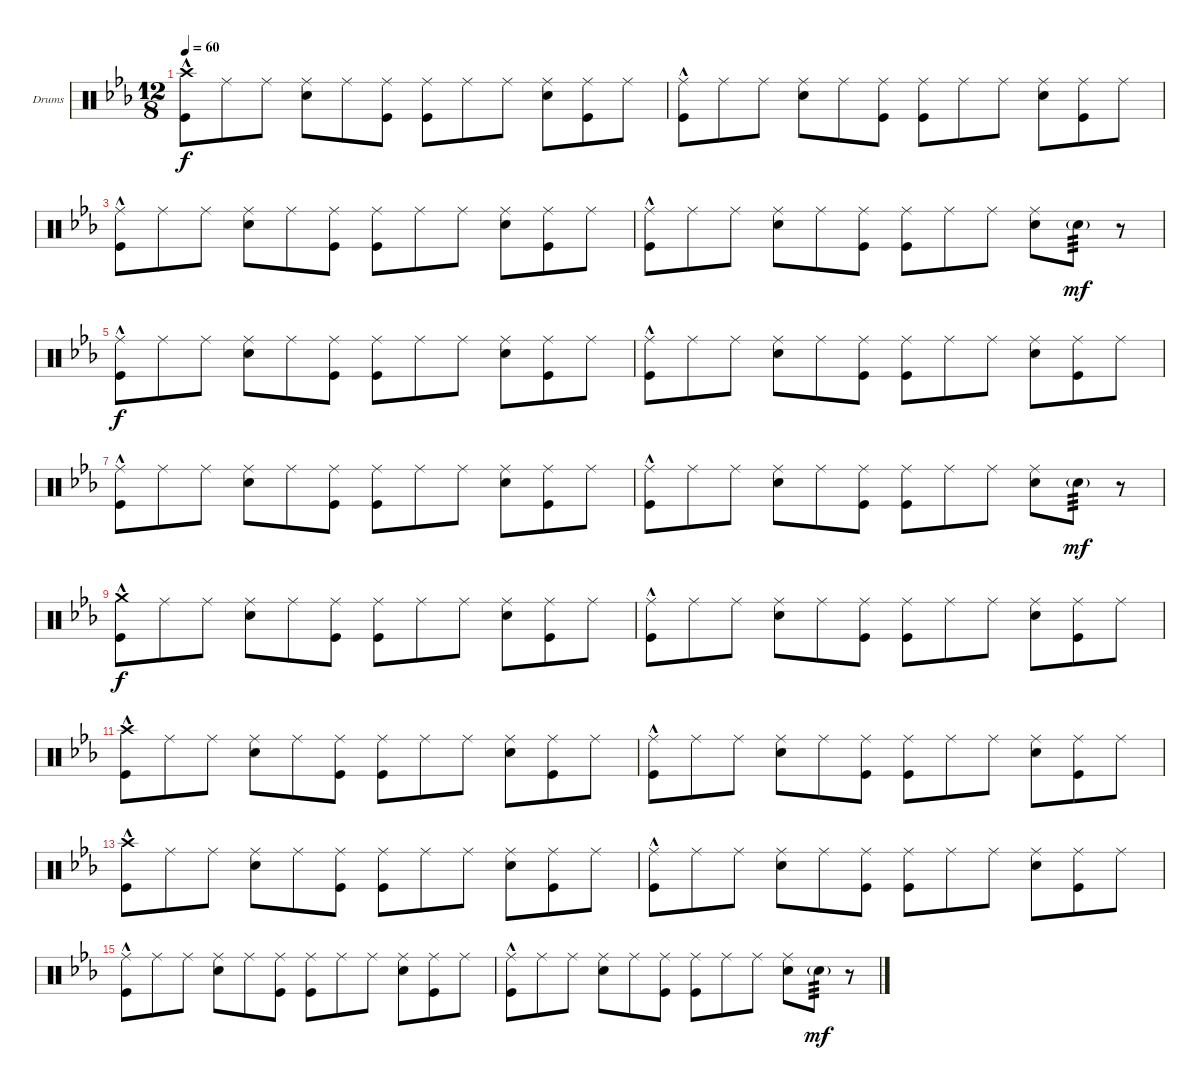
\bracketExtendMode nobrackets
\firstSystemTrackNameOrientation horizontal
\otherSystemsTrackNameOrientation horizontal
\defaultBarNumberDisplay FirstOfSystem
\track ("Drumkit" "Drums") {instrument percussion}
\staff {score}
\articulation defaults
\ts (12 8)
\tempo 60
\clef neutral
\scale
0.333333
\ks cminor
("Crash high (hit)" "Kick (hit)"{hac}).8{dy f} "Ride (middle)".8 "Ride (middle)".8 ("Ride (middle)" "Snare (hit) 2").8 "Ride (middle)".8 ("Ride (middle)" "Kick (hit)").8 ("Ride (middle)" "Kick (hit)").8 "Ride (middle)".8 "Ride (middle)".8 ("Ride (middle)" "Snare (hit) 2").8 ("Ride (middle)" "Kick (hit)").8 "Ride (middle)".8 |
\scale
0.333333 ("Ride (middle)" "Kick (hit)"{hac}).8 "Ride (middle)".8 "Ride (middle)".8 ("Ride (middle)" "Snare (hit) 2").8 "Ride (middle)".8 ("Ride (middle)" "Kick (hit)").8 ("Ride (middle)" "Kick (hit)").8 "Ride (middle)".8 "Ride (middle)".8 ("Ride (middle)" "Snare (hit) 2").8 ("Ride (middle)" "Kick (hit)").8 "Ride (middle)".8 |
\scale
0.333333 ("Ride (middle)" "Kick (hit)"{hac}).8 "Ride (middle)".8 "Ride (middle)".8 ("Ride (middle)" "Snare (hit) 2").8 "Ride (middle)".8 ("Ride (middle)" "Kick (hit)").8 ("Ride (middle)" "Kick (hit)").8 "Ride (middle)".8 "Ride (middle)".8 ("Ride (middle)" "Snare (hit) 2").8 ("Ride (middle)" "Kick (hit)").8 "Ride (middle)".8 |
\scale
0.333333 ("Ride (middle)" "Kick (hit)"{hac}).8 "Ride (middle)".8 "Ride (middle)".8 ("Ride (middle)" "Snare (hit) 2").8 "Ride (middle)".8 ("Ride (middle)" "Kick (hit)").8 ("Ride (middle)" "Kick (hit)").8 "Ride (middle)".8 "Ride (middle)".8 ("Ride (middle)" "Snare (hit) 2").8 "Snare (hit) 2"{g}.8{tp 3 dy mf} r.8 |
\scale
0.333333 ("Ride (middle)" "Kick (hit)"{hac}).8{dy f} "Ride (middle)".8 "Ride (middle)".8 ("Ride (middle)" "Snare (hit) 2").8 "Ride (middle)".8 ("Ride (middle)" "Kick (hit)").8 ("Ride (middle)" "Kick (hit)").8 "Ride (middle)".8 "Ride (middle)".8 ("Ride (middle)" "Snare (hit) 2").8 ("Ride (middle)" "Kick (hit)").8 "Ride (middle)".8 |
\scale
0.333333 ("Ride (middle)" "Kick (hit)"{hac}).8 "Ride (middle)".8 "Ride (middle)".8 ("Ride (middle)" "Snare (hit) 2").8 "Ride (middle)".8 ("Ride (middle)" "Kick (hit)").8 ("Ride (middle)" "Kick (hit)").8 "Ride (middle)".8 "Ride (middle)".8 ("Ride (middle)" "Snare (hit) 2").8 ("Ride (middle)" "Kick (hit)").8 "Ride (middle)".8 |
\scale
0.333333 ("Ride (middle)" "Kick (hit)"{hac}).8 "Ride (middle)".8 "Ride (middle)".8 ("Ride (middle)" "Snare (hit) 2").8 "Ride (middle)".8 ("Ride (middle)" "Kick (hit)").8 ("Ride (middle)" "Kick (hit)").8 "Ride (middle)".8 "Ride (middle)".8 ("Ride (middle)" "Snare (hit) 2").8 ("Ride (middle)" "Kick (hit)").8 "Ride (middle)".8 |
\scale
0.333333 ("Ride (middle)" "Kick (hit)"{hac}).8 "Ride (middle)".8 "Ride (middle)".8 ("Ride (middle)" "Snare (hit) 2").8 "Ride (middle)".8 ("Ride (middle)" "Kick (hit)").8 ("Ride (middle)" "Kick (hit)").8 "Ride (middle)".8 "Ride (middle)".8 ("Ride (middle)" "Snare (hit) 2").8 "Snare (hit) 2"{g}.8{tp 3 dy mf} r.8 |
\scale
0.333333 ("Crash medium (hit)" "Kick (hit)"{hac}).8{dy f} "Ride (middle)".8 "Ride (middle)".8 ("Ride (middle)" "Snare (hit) 2").8 "Ride (middle)".8 ("Ride (middle)" "Kick (hit)").8 ("Ride (middle)" "Kick (hit)").8 "Ride (middle)".8 "Ride (middle)".8 ("Ride (middle)" "Snare (hit) 2").8 ("Ride (middle)" "Kick (hit)").8 "Ride (middle)".8 |
\scale
0.333333 ("Ride (middle)" "Kick (hit)"{hac}).8 "Ride (middle)".8 "Ride (middle)".8 ("Ride (middle)" "Snare (hit) 2").8 "Ride (middle)".8 ("Ride (middle)" "Kick (hit)").8 ("Ride (middle)" "Kick (hit)").8 "Ride (middle)".8 "Ride (middle)".8 ("Ride (middle)" "Snare (hit) 2").8 ("Ride (middle)" "Kick (hit)").8 "Ride (middle)".8 |
\scale
0.333333 ("Crash high (hit)" "Kick (hit)"{hac}).8 "Ride (middle)".8 "Ride (middle)".8 ("Ride (middle)" "Snare (hit) 2").8 "Ride (middle)".8 ("Ride (middle)" "Kick (hit)").8 ("Ride (middle)" "Kick (hit)").8 "Ride (middle)".8 "Ride (middle)".8 ("Ride (middle)" "Snare (hit) 2").8 ("Ride (middle)" "Kick (hit)").8 "Ride (middle)".8 |
\scale
0.333333 ("Ride (middle)" "Kick (hit)"{hac}).8 "Ride (middle)".8 "Ride (middle)".8 ("Ride (middle)" "Snare (hit) 2").8 "Ride (middle)".8 ("Ride (middle)" "Kick (hit)").8 ("Ride (middle)" "Kick (hit)").8 "Ride (middle)".8 "Ride (middle)".8 ("Ride (middle)" "Snare (hit) 2").8 ("Ride (middle)" "Kick (hit)").8 "Ride (middle)".8 |
\scale
0.333333 ("Crash high (hit)" "Kick (hit)"{hac}).8 "Ride (middle)".8 "Ride (middle)".8 ("Ride (middle)" "Snare (hit) 2").8 "Ride (middle)".8 ("Ride (middle)" "Kick (hit)").8 ("Ride (middle)" "Kick (hit)").8 "Ride (middle)".8 "Ride (middle)".8 ("Ride (middle)" "Snare (hit) 2").8 ("Ride (middle)" "Kick (hit)").8 "Ride (middle)".8 |
\scale
0.333333 ("Ride (middle)" "Kick (hit)"{hac}).8 "Ride (middle)".8 "Ride (middle)".8 ("Ride (middle)" "Snare (hit) 2").8 "Ride (middle)".8 ("Ride (middle)" "Kick (hit)").8 ("Ride (middle)" "Kick (hit)").8 "Ride (middle)".8 "Ride (middle)".8 ("Ride (middle)" "Snare (hit) 2").8 ("Ride (middle)" "Kick (hit)").8 "Ride (middle)".8 |
\scale
0.333333 ("Ride (middle)" "Kick (hit)"{hac}).8 "Ride (middle)".8 "Ride (middle)".8 ("Ride (middle)" "Snare (hit) 2").8 "Ride (middle)".8 ("Ride (middle)" "Kick (hit)").8 ("Ride (middle)" "Kick (hit)").8 "Ride (middle)".8 "Ride (middle)".8 ("Ride (middle)" "Snare (hit) 2").8 ("Ride (middle)" "Kick (hit)").8 "Ride (middle)".8 |
\scale
0.333333 ("Ride (middle)" "Kick (hit)"{hac}).8 "Ride (middle)".8 "Ride (middle)".8 ("Ride (middle)" "Snare (hit) 2").8 "Ride (middle)".8 ("Ride (middle)" "Kick (hit)").8 ("Ride (middle)" "Kick (hit)").8 "Ride (middle)".8 "Ride (middle)".8 ("Ride (middle)" "Snare (hit) 2").8 "Snare (hit) 2"{g}.8{tp 3 dy mf} r.8
